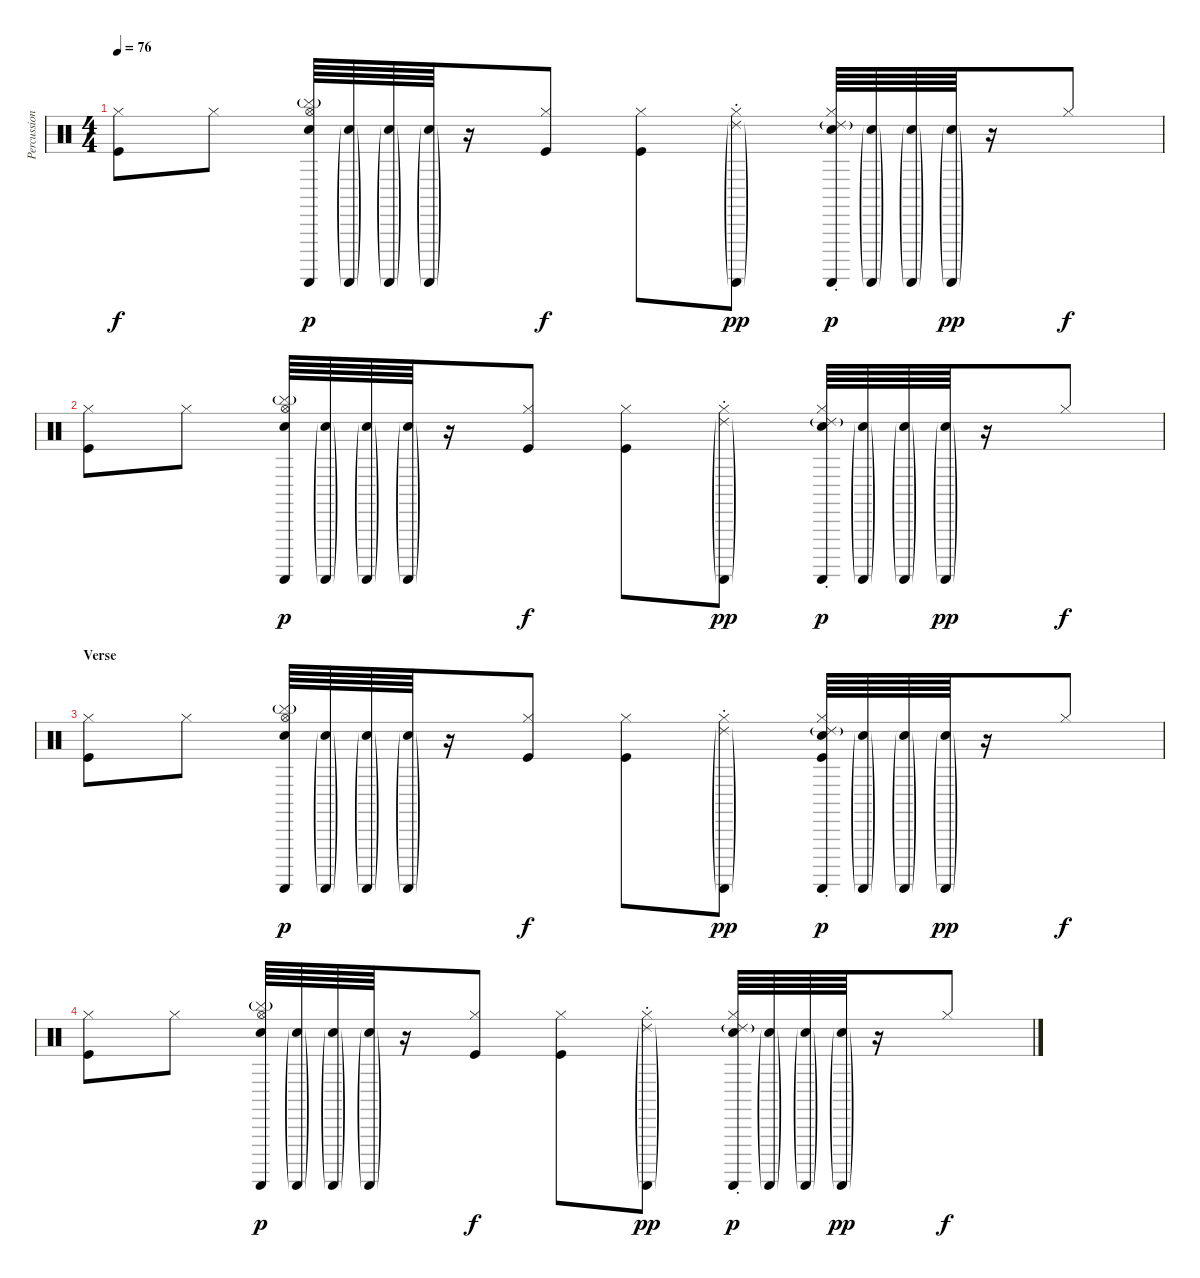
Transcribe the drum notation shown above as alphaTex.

\track ("Percussion" "Percussion") {instrument percussion}
\staff {score}
\articulation defaults
\ts (4 4)
\tempo 76
\clef neutral
\ks c
("Hi-Hat (closed)" "Kick (hit)").8{dy f} "Hi-Hat (closed)".8 ("Hi-Hat (open)" "Cymbal (hit)"{g} "Snare (hit) 2" "Guiro (scrap-return)").64{dy p} ("Snare (hit) 2"{g} "Guiro (scrap-return)"{g}).64 ("Snare (hit) 2"{g} "Guiro (scrap-return)"{g}).64 ("Snare (hit) 2"{g} "Guiro (scrap-return)"{g}).64 r.16 ("Hi-Hat (closed)" "Kick (hit)").8{dy f} ("Hi-Hat (closed)" "Kick (hit)").8 ("Hi-Hat (closed)" "Ride (choke) 2"{g} "Guiro (scrap-return)"{g}).8{dy pp} ("Hi-Hat (closed)" "Ride (choke) 2"{g} "Snare (hit) 2" "Guiro (scrap-return)").64{dy p} ("Snare (hit) 2"{g} "Guiro (scrap-return)"{g}).64 ("Snare (hit) 2"{g} "Guiro (scrap-return)"{g}).64 ("Snare (hit) 2"{g} "Guiro (scrap-return)"{g}).64{dy pp} r.16 "Hi-Hat (closed)".8{dy f} |
("Hi-Hat (closed)" "Kick (hit)").8 "Hi-Hat (closed)".8 ("Hi-Hat (open)" "Cymbal (hit)"{g} "Snare (hit) 2" "Guiro (scrap-return)").64{dy p} ("Snare (hit) 2"{g} "Guiro (scrap-return)"{g}).64 ("Snare (hit) 2"{g} "Guiro (scrap-return)"{g}).64 ("Snare (hit) 2"{g} "Guiro (scrap-return)"{g}).64 r.16 ("Hi-Hat (closed)" "Kick (hit)").8{dy f} ("Hi-Hat (closed)" "Kick (hit)").8 ("Hi-Hat (closed)" "Ride (choke) 2"{g} "Guiro (scrap-return)"{g}).8{dy pp} ("Hi-Hat (closed)" "Ride (choke) 2"{g} "Snare (hit) 2" "Guiro (scrap-return)").64{dy p} ("Snare (hit) 2"{g} "Guiro (scrap-return)"{g}).64 ("Snare (hit) 2"{g} "Guiro (scrap-return)"{g}).64 ("Snare (hit) 2"{g} "Guiro (scrap-return)"{g}).64{dy pp} r.16 "Hi-Hat (closed)".8{dy f} |
\section ("" "Verse")
("Hi-Hat (closed)" "Kick (hit)").8 "Hi-Hat (closed)".8 ("Hi-Hat (open)" "Cymbal (hit)"{g} "Snare (hit) 2" "Guiro (scrap-return)").64{dy p} ("Snare (hit) 2"{g} "Guiro (scrap-return)"{g}).64 ("Snare (hit) 2"{g} "Guiro (scrap-return)"{g}).64 ("Snare (hit) 2"{g} "Guiro (scrap-return)"{g}).64 r.16 ("Hi-Hat (closed)" "Kick (hit)").8{dy f} ("Hi-Hat (closed)" "Kick (hit)").8 ("Hi-Hat (closed)" "Ride (choke) 2"{g} "Guiro (scrap-return)"{g}).8{dy pp} ("Hi-Hat (closed)" "Ride (choke) 2"{g} "Snare (hit) 2" "Guiro (scrap-return)" "Kick (hit)").64{dy p} ("Snare (hit) 2"{g} "Guiro (scrap-return)"{g}).64 ("Snare (hit) 2"{g} "Guiro (scrap-return)"{g}).64 ("Snare (hit) 2"{g} "Guiro (scrap-return)"{g}).64{dy pp} r.16 "Hi-Hat (closed)".8{dy f} |
("Hi-Hat (closed)" "Kick (hit)").8 "Hi-Hat (closed)".8 ("Hi-Hat (open)" "Cymbal (hit)"{g} "Snare (hit) 2" "Guiro (scrap-return)").64{dy p} ("Snare (hit) 2"{g} "Guiro (scrap-return)"{g}).64 ("Snare (hit) 2"{g} "Guiro (scrap-return)"{g}).64 ("Snare (hit) 2"{g} "Guiro (scrap-return)"{g}).64 r.16 ("Hi-Hat (closed)" "Kick (hit)").8{dy f} ("Hi-Hat (closed)" "Kick (hit)").8 ("Hi-Hat (closed)" "Ride (choke) 2"{g} "Guiro (scrap-return)"{g}).8{dy pp} ("Hi-Hat (closed)" "Ride (choke) 2"{g} "Snare (hit) 2" "Guiro (scrap-return)").64{dy p} ("Snare (hit) 2"{g} "Guiro (scrap-return)"{g}).64 ("Snare (hit) 2"{g} "Guiro (scrap-return)"{g}).64 ("Snare (hit) 2"{g} "Guiro (scrap-return)"{g}).64{dy pp} r.16 "Hi-Hat (closed)".8{dy f}
